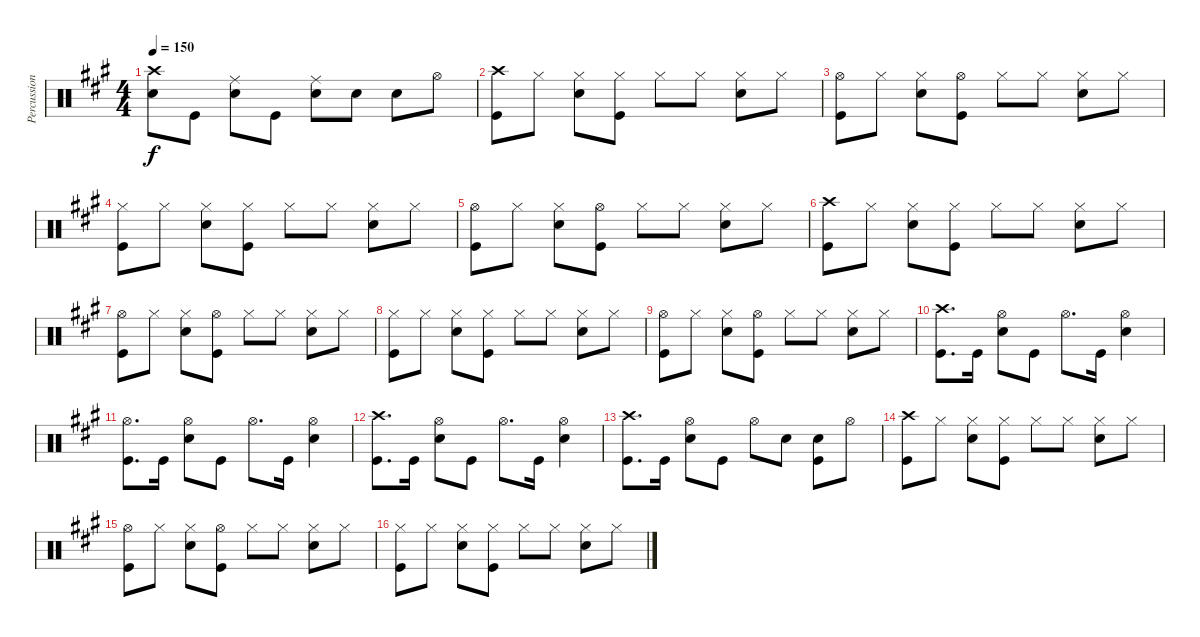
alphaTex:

\track ("Percussion" "Percussion") {instrument percussion}
\staff {score}
\articulation defaults
\ts (4 4)
\tempo 150
\clef neutral
\ks a
("Snare (hit) 2" "Crash high (hit)").8{dy f} "Kick (hit)".8 ("Snare (hit) 2" "Ride (middle)").8 "Kick (hit)".8 ("Snare (hit) 2" "Ride (middle)").8 "Snare (hit) 2".8 "Snare (hit) 2".8 "Hi-Hat (open)".8 |
("Kick (hit)" "Crash high (hit)").8 "Hi-Hat (closed)".8 ("Snare (hit) 2" "Hi-Hat (closed)").8 ("Kick (hit)" "Hi-Hat (closed)").8 "Hi-Hat (closed)".8 "Hi-Hat (closed)".8 ("Snare (hit) 2" "Hi-Hat (closed)").8 "Hi-Hat (closed)".8 |
("Kick (hit)" "Hi-Hat (open)").8 "Hi-Hat (closed)".8 ("Snare (hit) 2" "Hi-Hat (closed)").8 ("Kick (hit)" "Hi-Hat (open)").8 "Hi-Hat (closed)".8 "Hi-Hat (closed)".8 ("Snare (hit) 2" "Hi-Hat (closed)").8 "Hi-Hat (closed)".8 |
("Kick (hit)" "Hi-Hat (closed)").8 "Hi-Hat (closed)".8 ("Snare (hit) 2" "Hi-Hat (closed)").8 ("Kick (hit)" "Hi-Hat (closed)").8 "Hi-Hat (closed)".8 "Hi-Hat (closed)".8 ("Snare (hit) 2" "Hi-Hat (closed)").8 "Hi-Hat (closed)".8 |
("Kick (hit)" "Hi-Hat (open)").8 "Hi-Hat (closed)".8 ("Snare (hit) 2" "Hi-Hat (closed)").8 ("Kick (hit)" "Hi-Hat (open)").8 "Hi-Hat (closed)".8 "Hi-Hat (closed)".8 ("Snare (hit) 2" "Hi-Hat (closed)").8 "Hi-Hat (closed)".8 |
("Kick (hit)" "Crash high (hit)").8 "Hi-Hat (closed)".8 ("Snare (hit) 2" "Hi-Hat (closed)").8 ("Kick (hit)" "Hi-Hat (closed)").8 "Hi-Hat (closed)".8 "Hi-Hat (closed)".8 ("Snare (hit) 2" "Hi-Hat (closed)").8 "Hi-Hat (closed)".8 |
("Kick (hit)" "Hi-Hat (open)").8 "Hi-Hat (closed)".8 ("Snare (hit) 2" "Hi-Hat (closed)").8 ("Kick (hit)" "Hi-Hat (open)").8 "Hi-Hat (closed)".8 "Hi-Hat (closed)".8 ("Snare (hit) 2" "Hi-Hat (closed)").8 "Hi-Hat (closed)".8 |
("Kick (hit)" "Hi-Hat (closed)").8 "Hi-Hat (closed)".8 ("Snare (hit) 2" "Hi-Hat (closed)").8 ("Kick (hit)" "Hi-Hat (closed)").8 "Hi-Hat (closed)".8 "Hi-Hat (closed)".8 ("Snare (hit) 2" "Hi-Hat (closed)").8 "Hi-Hat (closed)".8 |
("Kick (hit)" "Hi-Hat (open)").8 "Hi-Hat (closed)".8 ("Snare (hit) 2" "Hi-Hat (closed)").8 ("Kick (hit)" "Hi-Hat (open)").8 "Hi-Hat (closed)".8 "Hi-Hat (closed)".8 ("Snare (hit) 2" "Hi-Hat (closed)").8 "Hi-Hat (closed)".8 |
("Kick (hit)" "Crash high (hit)").8{d} "Kick (hit)".16 ("Snare (hit) 2" "Hi-Hat (open)").8 "Kick (hit)".8 "Hi-Hat (open)".8{d} "Kick (hit)".16 ("Snare (hit) 2" "Hi-Hat (open)").4 |
("Kick (hit)" "Hi-Hat (open)").8{d} "Kick (hit)".16 ("Snare (hit) 2" "Hi-Hat (open)").8 "Kick (hit)".8 "Hi-Hat (open)".8{d} "Kick (hit)".16 ("Snare (hit) 2" "Hi-Hat (open)").4 |
("Kick (hit)" "Crash high (hit)").8{d} "Kick (hit)".16 ("Snare (hit) 2" "Hi-Hat (open)").8 "Kick (hit)".8 "Hi-Hat (open)".8{d} "Kick (hit)".16 ("Snare (hit) 2" "Hi-Hat (open)").4 |
("Kick (hit)" "Crash high (hit)").8{d} "Kick (hit)".16 ("Snare (hit) 2" "Hi-Hat (open)").8 "Kick (hit)".8 "Hi-Hat (open)".8 "Snare (hit) 2".8 ("Snare (hit) 2" "Kick (hit)").8 "Hi-Hat (open)".8 |
("Kick (hit)" "Crash high (hit)").8 "Hi-Hat (closed)".8 ("Snare (hit) 2" "Hi-Hat (closed)").8 ("Kick (hit)" "Hi-Hat (closed)").8 "Hi-Hat (closed)".8 "Hi-Hat (closed)".8 ("Snare (hit) 2" "Hi-Hat (closed)").8 "Hi-Hat (closed)".8 |
("Kick (hit)" "Hi-Hat (open)").8 "Hi-Hat (closed)".8 ("Snare (hit) 2" "Hi-Hat (closed)").8 ("Kick (hit)" "Hi-Hat (open)").8 "Hi-Hat (closed)".8 "Hi-Hat (closed)".8 ("Snare (hit) 2" "Hi-Hat (closed)").8 "Hi-Hat (closed)".8 |
("Kick (hit)" "Hi-Hat (closed)").8 "Hi-Hat (closed)".8 ("Snare (hit) 2" "Hi-Hat (closed)").8 ("Kick (hit)" "Hi-Hat (closed)").8 "Hi-Hat (closed)".8 "Hi-Hat (closed)".8 ("Snare (hit) 2" "Hi-Hat (closed)").8 "Hi-Hat (closed)".8
